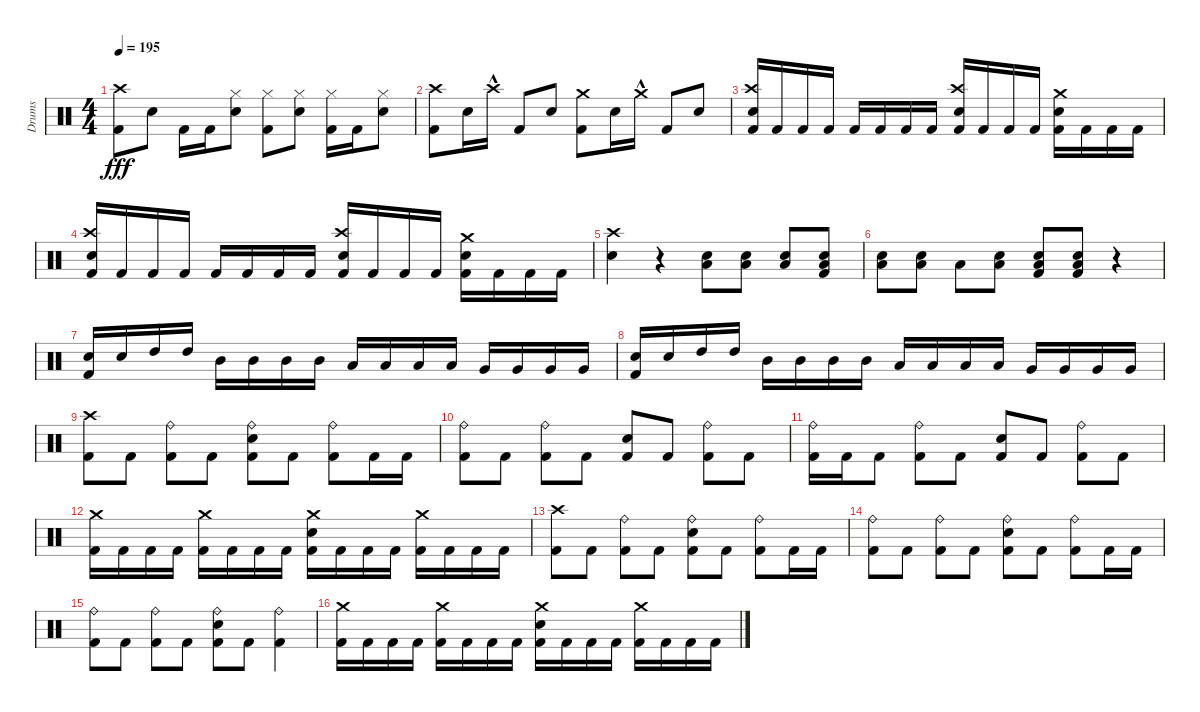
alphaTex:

\track ("Drums" "Drums") {instrument percussion}
\staff {score}
\articulation defaults
\ts (4 4)
\tempo 195
\clef neutral
\ks c
("Kick (hit) 2" "Crash high (hit)").8{dy fff} "Metronome (bell)".8 "Kick (hit) 2".16 "Kick (hit) 2".16 ("Metronome (bell)" "Hi-Hat (closed)").8 ("Kick (hit) 2" "Hi-Hat (closed)").8 ("Metronome (bell)" "Hi-Hat (closed)").8 ("Kick (hit) 2" "Hi-Hat (closed)").16 "Kick (hit) 2".16 ("Metronome (bell)" "Hi-Hat (closed)").8 |
("Kick (hit) 2" "Crash high (hit)").8 "Metronome (bell)".16 "Crash high (hit)"{hac}.16 "Kick (hit) 2".8 "Metronome (bell)".8 ("Kick (hit) 2" "Crash medium (hit)").8 "Metronome (bell)".16 "Crash medium (hit)"{hac}.16 "Kick (hit) 2".8 "Metronome (bell)".8 |
("Metronome (bell)" "Kick (hit) 2" "Crash high (hit)").16 "Kick (hit) 2".16 "Kick (hit) 2".16 "Kick (hit) 2".16 "Kick (hit) 2".16 "Kick (hit) 2".16 "Kick (hit) 2".16 "Kick (hit) 2".16 ("Metronome (bell)" "Kick (hit) 2" "Crash high (hit)").16 "Kick (hit) 2".16 "Kick (hit) 2".16 "Kick (hit) 2".16 ("Metronome (bell)" "Kick (hit) 2" "Crash medium (hit)").16 "Kick (hit) 2".16 "Kick (hit) 2".16 "Kick (hit) 2".16 |
("Metronome (bell)" "Kick (hit) 2" "Crash high (hit)").16 "Kick (hit) 2".16 "Kick (hit) 2".16 "Kick (hit) 2".16 "Kick (hit) 2".16 "Kick (hit) 2".16 "Kick (hit) 2".16 "Kick (hit) 2".16 ("Metronome (bell)" "Kick (hit) 2" "Crash high (hit)").16 "Kick (hit) 2".16 "Kick (hit) 2".16 "Kick (hit) 2".16 ("Metronome (bell)" "Kick (hit) 2" "Crash medium (hit)").16 "Kick (hit) 2".16 "Kick (hit) 2".16 "Kick (hit) 2".16 |
("Metronome (bell)" "Crash high (hit)").4 r.4 ("Metronome (bell)" "Low Tom (hit)").8 ("Metronome (bell)" "Low Tom (hit)").8 ("Metronome (bell)" "Low Tom (hit)").8 ("Metronome (bell)" "Kick (hit) 2" "Low Tom (hit)").8 |
("Metronome (bell)" "Low Tom (hit)").8 ("Metronome (bell)" "Low Tom (hit)").8 "Low Tom (hit)".8 ("Metronome (bell)" "Low Tom (hit)").8 ("Metronome (bell)" "Kick (hit) 2" "Low Tom (hit)").8 ("Metronome (bell)" "Kick (hit) 2" "Low Tom (hit)").8 r.4 |
("Metronome (bell)" "Kick (hit) 2").16 "Metronome (bell)".16 "High Tom (hit)".16 "High Tom (hit)".16 "Mid Tom (hit)".16 "Mid Tom (hit)".16 "Mid Tom (hit)".16 "Mid Tom (hit)".16 "Low Tom (hit)".16 "Low Tom (hit)".16 "Low Tom (hit)".16 "Low Tom (hit)".16 "Very Low Tom (hit)".16 "Very Low Tom (hit)".16 "Very Low Tom (hit)".16 "Very Low Tom (hit)".16 |
("Metronome (bell)" "Kick (hit) 2").16 "Metronome (bell)".16 "High Tom (hit)".16 "High Tom (hit)".16 "Mid Tom (hit)".16 "Mid Tom (hit)".16 "Mid Tom (hit)".16 "Mid Tom (hit)".16 "Low Tom (hit)".16 "Low Tom (hit)".16 "Low Tom (hit)".16 "Low Tom (hit)".16 "Very Low Tom (hit)".16 "Very Low Tom (hit)".16 "Very Low Tom (hit)".16 "Very Low Tom (hit)".16 |
("Kick (hit) 2" "Crash high (hit)").8 "Kick (hit) 2".8 ("Kick (hit) 2" "Ride (bell)").8 "Kick (hit) 2".8 ("Metronome (bell)" "Kick (hit) 2" "Ride (bell)").8 "Kick (hit) 2".8 ("Kick (hit) 2" "Ride (bell)").8 "Kick (hit) 2".16 "Kick (hit) 2".16 |
("Kick (hit) 2" "Ride (bell)").8 "Kick (hit) 2".8 ("Kick (hit) 2" "Ride (bell)").8 "Kick (hit) 2".8 ("Metronome (bell)" "Kick (hit) 2").8 "Kick (hit) 2".8 ("Kick (hit) 2" "Ride (bell)").8 "Kick (hit) 2".8 |
("Kick (hit) 2" "Ride (bell)").16 "Kick (hit) 2".16 "Kick (hit) 2".8 ("Kick (hit) 2" "Ride (bell)").8 "Kick (hit) 2".8 ("Metronome (bell)" "Kick (hit) 2").8 "Kick (hit) 2".8 ("Kick (hit) 2" "Ride (bell)").8 "Kick (hit) 2".8 |
("Kick (hit) 2" "Crash medium (hit)").16 "Kick (hit) 2".16 "Kick (hit) 2".16 "Kick (hit) 2".16 ("Kick (hit) 2" "Crash medium (hit)").16 "Kick (hit) 2".16 "Kick (hit) 2".16 "Kick (hit) 2".16 ("Metronome (bell)" "Kick (hit) 2" "Crash medium (hit)").16 "Kick (hit) 2".16 "Kick (hit) 2".16 "Kick (hit) 2".16 ("Kick (hit) 2" "Crash medium (hit)").16 "Kick (hit) 2".16 "Kick (hit) 2".16 "Kick (hit) 2".16 |
("Kick (hit) 2" "Crash high (hit)").8 "Kick (hit) 2".8 ("Kick (hit) 2" "Ride (bell)").8 "Kick (hit) 2".8 ("Metronome (bell)" "Kick (hit) 2" "Ride (bell)").8 "Kick (hit) 2".8 ("Kick (hit) 2" "Ride (bell)").8 "Kick (hit) 2".16 "Kick (hit) 2".16 |
("Kick (hit) 2" "Ride (bell)").8 "Kick (hit) 2".8 ("Kick (hit) 2" "Ride (bell)").8 "Kick (hit) 2".8 ("Metronome (bell)" "Kick (hit) 2" "Ride (bell)").8 "Kick (hit) 2".8 ("Kick (hit) 2" "Ride (bell)").8 "Kick (hit) 2".16 "Kick (hit) 2".16 |
("Kick (hit) 2" "Ride (bell)").8 "Kick (hit) 2".8 ("Kick (hit) 2" "Ride (bell)").8 "Kick (hit) 2".8 ("Metronome (bell)" "Kick (hit) 2" "Ride (bell)").8 "Kick (hit) 2".8 ("Kick (hit) 2" "Ride (bell)").4 |
("Kick (hit) 2" "Crash medium (hit)").16 "Kick (hit) 2".16 "Kick (hit) 2".16 "Kick (hit) 2".16 ("Kick (hit) 2" "Crash medium (hit)").16 "Kick (hit) 2".16 "Kick (hit) 2".16 "Kick (hit) 2".16 ("Metronome (bell)" "Kick (hit) 2" "Crash medium (hit)").16 "Kick (hit) 2".16 "Kick (hit) 2".16 "Kick (hit) 2".16 ("Kick (hit) 2" "Crash medium (hit)").16 "Kick (hit) 2".16 "Kick (hit) 2".16 "Kick (hit) 2".16
